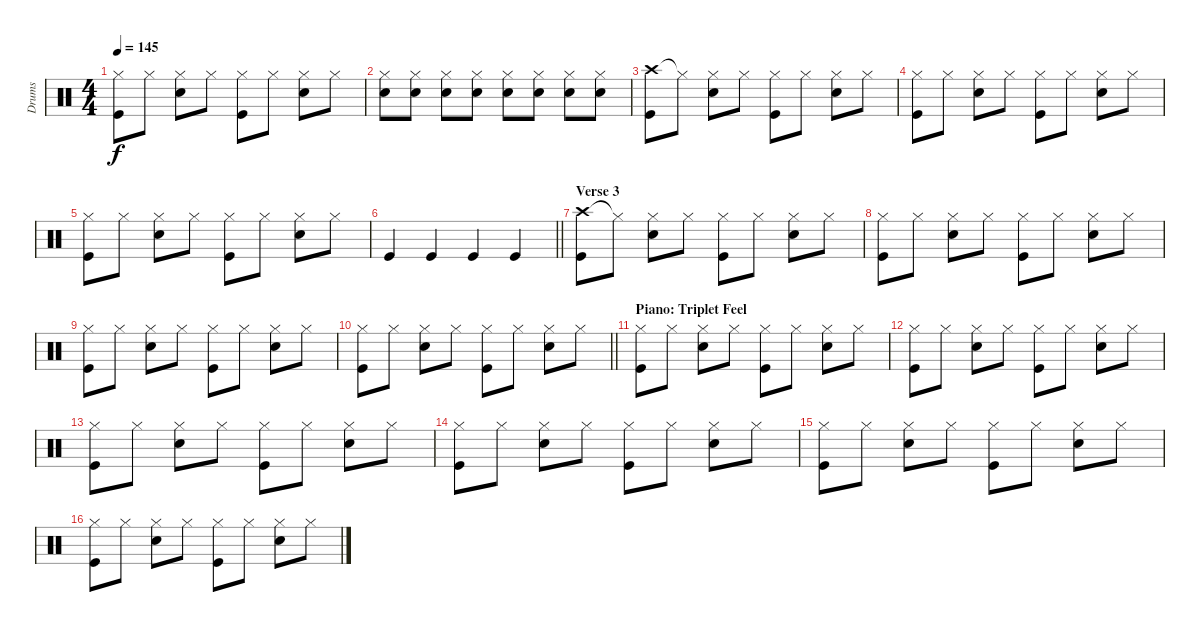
\track ("Drums" "Drums") {instrument percussion}
\staff {score}
\articulation defaults
\ts (4 4)
\tempo 145
\clef neutral
\ks c
("Hi-Hat (closed)" "Kick (hit)").8{dy f} "Hi-Hat (closed)".8 ("Hi-Hat (closed)" "Electric Snare (hit)").8 "Hi-Hat (closed)".8 ("Hi-Hat (closed)" "Kick (hit)").8 "Hi-Hat (closed)".8 ("Hi-Hat (closed)" "Electric Snare (hit)").8 "Hi-Hat (closed)".8 |
("Hi-Hat (closed)" "Electric Snare (hit)").8 ("Hi-Hat (closed)" "Electric Snare (hit)").8 ("Hi-Hat (closed)" "Electric Snare (hit)").8 ("Hi-Hat (closed)" "Electric Snare (hit)").8 ("Hi-Hat (closed)" "Electric Snare (hit)").8 ("Hi-Hat (closed)" "Electric Snare (hit)").8 ("Hi-Hat (closed)" "Electric Snare (hit)").8 ("Hi-Hat (closed)" "Electric Snare (hit)").8 |
("Crash high (hit)" "Kick (hit)").8 "Hi-Hat (closed)"{t}.8 ("Hi-Hat (closed)" "Electric Snare (hit)").8 "Hi-Hat (closed)".8 ("Hi-Hat (closed)" "Kick (hit)").8 "Hi-Hat (closed)".8 ("Hi-Hat (closed)" "Electric Snare (hit)").8 "Hi-Hat (closed)".8 |
("Hi-Hat (closed)" "Kick (hit)").8 "Hi-Hat (closed)".8 ("Hi-Hat (closed)" "Electric Snare (hit)").8 "Hi-Hat (closed)".8 ("Hi-Hat (closed)" "Kick (hit)").8 "Hi-Hat (closed)".8 ("Hi-Hat (closed)" "Electric Snare (hit)").8 "Hi-Hat (closed)".8 |
("Hi-Hat (closed)" "Kick (hit)").8 "Hi-Hat (closed)".8 ("Hi-Hat (closed)" "Electric Snare (hit)").8 "Hi-Hat (closed)".8 ("Hi-Hat (closed)" "Kick (hit)").8 "Hi-Hat (closed)".8 ("Hi-Hat (closed)" "Electric Snare (hit)").8 "Hi-Hat (closed)".8 |
\barLineRight lightlight "Kick (hit)".4 "Kick (hit)".4 "Kick (hit)".4 "Kick (hit)".4
|
\section ("" "Verse 3")
("Crash high (hit)" "Kick (hit)").8 "Hi-Hat (closed)"{t}.8 ("Hi-Hat (closed)" "Electric Snare (hit)").8 "Hi-Hat (closed)".8 ("Hi-Hat (closed)" "Kick (hit)").8 "Hi-Hat (closed)".8 ("Hi-Hat (closed)" "Electric Snare (hit)").8 "Hi-Hat (closed)".8 |
("Hi-Hat (closed)" "Kick (hit)").8 "Hi-Hat (closed)".8 ("Hi-Hat (closed)" "Electric Snare (hit)").8 "Hi-Hat (closed)".8 ("Hi-Hat (closed)" "Kick (hit)").8 "Hi-Hat (closed)".8 ("Hi-Hat (closed)" "Electric Snare (hit)").8 "Hi-Hat (closed)".8 |
("Hi-Hat (closed)" "Kick (hit)").8 "Hi-Hat (closed)".8 ("Hi-Hat (closed)" "Electric Snare (hit)").8 "Hi-Hat (closed)".8 ("Hi-Hat (closed)" "Kick (hit)").8 "Hi-Hat (closed)".8 ("Hi-Hat (closed)" "Electric Snare (hit)").8 "Hi-Hat (closed)".8 |
\barLineRight lightlight
("Hi-Hat (closed)" "Kick (hit)").8 "Hi-Hat (closed)".8 ("Hi-Hat (closed)" "Electric Snare (hit)").8 "Hi-Hat (closed)".8 ("Hi-Hat (closed)" "Kick (hit)").8 "Hi-Hat (closed)".8 ("Hi-Hat (closed)" "Electric Snare (hit)").8 "Hi-Hat (closed)".8 |
\section ("" "Piano: Triplet Feel")
("Hi-Hat (closed)" "Kick (hit)").8 "Hi-Hat (closed)".8 ("Hi-Hat (closed)" "Electric Snare (hit)").8 "Hi-Hat (closed)".8 ("Hi-Hat (closed)" "Kick (hit)").8 "Hi-Hat (closed)".8 ("Hi-Hat (closed)" "Electric Snare (hit)").8 "Hi-Hat (closed)".8 |
("Hi-Hat (closed)" "Kick (hit)").8 "Hi-Hat (closed)".8 ("Hi-Hat (closed)" "Electric Snare (hit)").8 "Hi-Hat (closed)".8 ("Hi-Hat (closed)" "Kick (hit)").8 "Hi-Hat (closed)".8 ("Hi-Hat (closed)" "Electric Snare (hit)").8 "Hi-Hat (closed)".8 |
("Hi-Hat (closed)" "Kick (hit)").8 "Hi-Hat (closed)".8 ("Hi-Hat (closed)" "Electric Snare (hit)").8 "Hi-Hat (closed)".8 ("Hi-Hat (closed)" "Kick (hit)").8 "Hi-Hat (closed)".8 ("Hi-Hat (closed)" "Electric Snare (hit)").8 "Hi-Hat (closed)".8 |
("Hi-Hat (closed)" "Kick (hit)").8 "Hi-Hat (closed)".8 ("Hi-Hat (closed)" "Electric Snare (hit)").8 "Hi-Hat (closed)".8 ("Hi-Hat (closed)" "Kick (hit)").8 "Hi-Hat (closed)".8 ("Hi-Hat (closed)" "Electric Snare (hit)").8 "Hi-Hat (closed)".8 |
("Hi-Hat (closed)" "Kick (hit)").8 "Hi-Hat (closed)".8 ("Hi-Hat (closed)" "Electric Snare (hit)").8 "Hi-Hat (closed)".8 ("Hi-Hat (closed)" "Kick (hit)").8 "Hi-Hat (closed)".8 ("Hi-Hat (closed)" "Electric Snare (hit)").8 "Hi-Hat (closed)".8 |
("Hi-Hat (closed)" "Kick (hit)").8 "Hi-Hat (closed)".8 ("Hi-Hat (closed)" "Electric Snare (hit)").8 "Hi-Hat (closed)".8 ("Hi-Hat (closed)" "Kick (hit)").8 "Hi-Hat (closed)".8 ("Hi-Hat (closed)" "Electric Snare (hit)").8 "Hi-Hat (closed)".8
